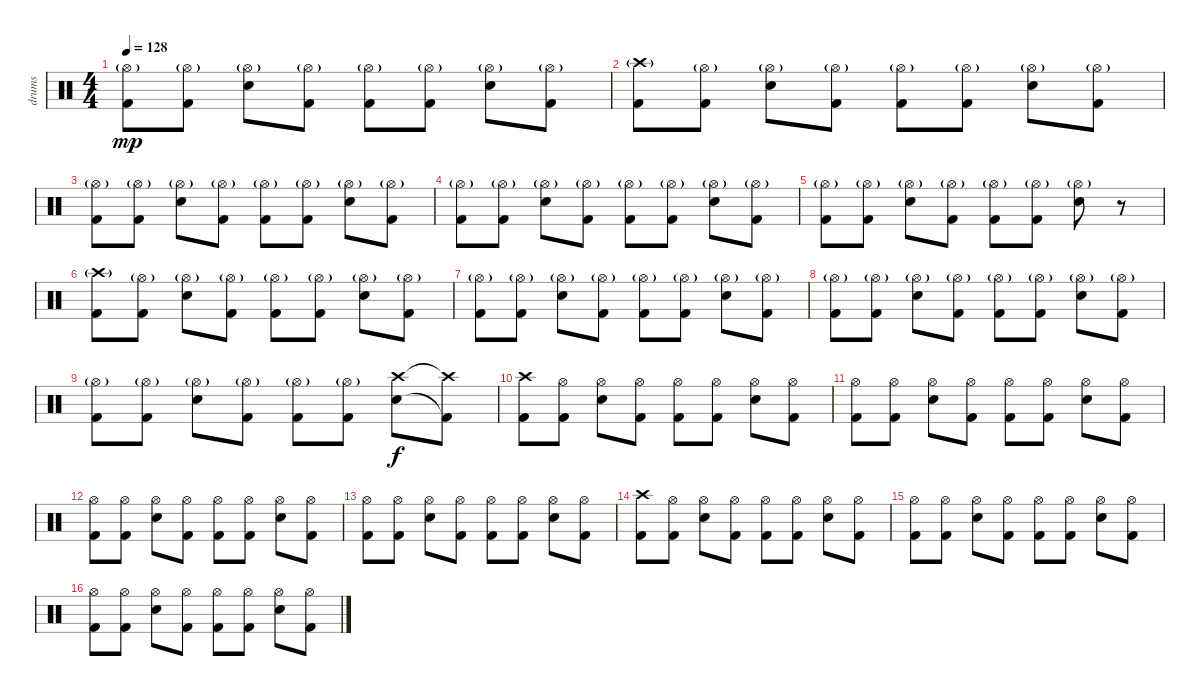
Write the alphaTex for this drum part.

\track ("drums" "drums") {instrument percussion}
\staff {score}
\articulation defaults
\ts (4 4)
\tempo 128
\clef neutral
\ks c
("Hi-Hat (open)"{g} "Kick (hit) 2").8{dy mp} ("Hi-Hat (open)"{g} "Kick (hit) 2").8 ("Hi-Hat (open)"{g} "Electric Snare (hit)").8 ("Hi-Hat (open)"{g} "Kick (hit) 2").8 ("Hi-Hat (open)"{g} "Kick (hit) 2").8 ("Hi-Hat (open)"{g} "Kick (hit) 2").8 ("Hi-Hat (open)"{g} "Electric Snare (hit)").8 ("Hi-Hat (open)"{g} "Kick (hit) 2").8 |
("Crash high (hit)"{g} "Kick (hit) 2").8 ("Hi-Hat (open)"{g} "Kick (hit) 2").8 ("Hi-Hat (open)"{g} "Electric Snare (hit)").8 ("Hi-Hat (open)"{g} "Kick (hit) 2").8 ("Hi-Hat (open)"{g} "Kick (hit) 2").8 ("Hi-Hat (open)"{g} "Kick (hit) 2").8 ("Hi-Hat (open)"{g} "Electric Snare (hit)").8 ("Hi-Hat (open)"{g} "Kick (hit) 2").8 |
("Hi-Hat (open)"{g} "Kick (hit) 2").8 ("Hi-Hat (open)"{g} "Kick (hit) 2").8 ("Hi-Hat (open)"{g} "Electric Snare (hit)").8 ("Hi-Hat (open)"{g} "Kick (hit) 2").8 ("Hi-Hat (open)"{g} "Kick (hit) 2").8 ("Hi-Hat (open)"{g} "Kick (hit) 2").8 ("Hi-Hat (open)"{g} "Electric Snare (hit)").8 ("Hi-Hat (open)"{g} "Kick (hit) 2").8 |
("Hi-Hat (open)"{g} "Kick (hit) 2").8 ("Hi-Hat (open)"{g} "Kick (hit) 2").8 ("Hi-Hat (open)"{g} "Electric Snare (hit)").8 ("Hi-Hat (open)"{g} "Kick (hit) 2").8 ("Hi-Hat (open)"{g} "Kick (hit) 2").8 ("Hi-Hat (open)"{g} "Kick (hit) 2").8 ("Hi-Hat (open)"{g} "Electric Snare (hit)").8 ("Hi-Hat (open)"{g} "Kick (hit) 2").8 |
("Hi-Hat (open)"{g} "Kick (hit) 2").8 ("Hi-Hat (open)"{g} "Kick (hit) 2").8 ("Hi-Hat (open)"{g} "Electric Snare (hit)").8 ("Hi-Hat (open)"{g} "Kick (hit) 2").8 ("Hi-Hat (open)"{g} "Kick (hit) 2").8 ("Hi-Hat (open)"{g} "Kick (hit) 2").8 ("Hi-Hat (open)"{g} "Electric Snare (hit)").8 r.8 |
("Crash high (hit)"{g} "Kick (hit) 2").8 ("Hi-Hat (open)"{g} "Kick (hit) 2").8 ("Hi-Hat (open)"{g} "Electric Snare (hit)").8 ("Hi-Hat (open)"{g} "Kick (hit) 2").8 ("Hi-Hat (open)"{g} "Kick (hit) 2").8 ("Hi-Hat (open)"{g} "Kick (hit) 2").8 ("Hi-Hat (open)"{g} "Electric Snare (hit)").8 ("Hi-Hat (open)"{g} "Kick (hit) 2").8 |
("Hi-Hat (open)"{g} "Kick (hit) 2").8 ("Hi-Hat (open)"{g} "Kick (hit) 2").8 ("Hi-Hat (open)"{g} "Electric Snare (hit)").8 ("Hi-Hat (open)"{g} "Kick (hit) 2").8 ("Hi-Hat (open)"{g} "Kick (hit) 2").8 ("Hi-Hat (open)"{g} "Kick (hit) 2").8 ("Hi-Hat (open)"{g} "Electric Snare (hit)").8 ("Hi-Hat (open)"{g} "Kick (hit) 2").8 |
("Hi-Hat (open)"{g} "Kick (hit) 2").8 ("Hi-Hat (open)"{g} "Kick (hit) 2").8 ("Hi-Hat (open)"{g} "Electric Snare (hit)").8 ("Hi-Hat (open)"{g} "Kick (hit) 2").8 ("Hi-Hat (open)"{g} "Kick (hit) 2").8 ("Hi-Hat (open)"{g} "Kick (hit) 2").8 ("Hi-Hat (open)"{g} "Electric Snare (hit)").8 ("Hi-Hat (open)"{g} "Kick (hit) 2").8 |
("Hi-Hat (open)"{g} "Kick (hit) 2").8 ("Hi-Hat (open)"{g} "Kick (hit) 2").8 ("Hi-Hat (open)"{g} "Electric Snare (hit)").8 ("Hi-Hat (open)"{g} "Kick (hit) 2").8 ("Hi-Hat (open)"{g} "Kick (hit) 2").8 ("Hi-Hat (open)"{g} "Kick (hit) 2").8 ("Crash high (hit)" "Electric Snare (hit)").8{dy f} ("Crash high (hit)"{t} "Kick (hit) 2"{t}).8 |
("Crash high (hit)" "Kick (hit) 2").8 ("Hi-Hat (open)" "Kick (hit) 2").8 ("Hi-Hat (open)" "Electric Snare (hit)").8 ("Hi-Hat (open)" "Kick (hit) 2").8 ("Hi-Hat (open)" "Kick (hit) 2").8 ("Hi-Hat (open)" "Kick (hit) 2").8 ("Hi-Hat (open)" "Electric Snare (hit)").8 ("Hi-Hat (open)" "Kick (hit) 2").8 |
("Hi-Hat (open)" "Kick (hit) 2").8 ("Hi-Hat (open)" "Kick (hit) 2").8 ("Hi-Hat (open)" "Electric Snare (hit)").8 ("Hi-Hat (open)" "Kick (hit) 2").8 ("Hi-Hat (open)" "Kick (hit) 2").8 ("Hi-Hat (open)" "Kick (hit) 2").8 ("Hi-Hat (open)" "Electric Snare (hit)").8 ("Hi-Hat (open)" "Kick (hit) 2").8 |
("Hi-Hat (open)" "Kick (hit) 2").8 ("Hi-Hat (open)" "Kick (hit) 2").8 ("Hi-Hat (open)" "Electric Snare (hit)").8 ("Hi-Hat (open)" "Kick (hit) 2").8 ("Hi-Hat (open)" "Kick (hit) 2").8 ("Hi-Hat (open)" "Kick (hit) 2").8 ("Hi-Hat (open)" "Electric Snare (hit)").8 ("Hi-Hat (open)" "Kick (hit) 2").8 |
("Hi-Hat (open)" "Kick (hit) 2").8 ("Hi-Hat (open)" "Kick (hit) 2").8 ("Hi-Hat (open)" "Electric Snare (hit)").8 ("Hi-Hat (open)" "Kick (hit) 2").8 ("Hi-Hat (open)" "Kick (hit) 2").8 ("Hi-Hat (open)" "Kick (hit) 2").8 ("Hi-Hat (open)" "Electric Snare (hit)").8 ("Hi-Hat (open)" "Kick (hit) 2").8 |
("Crash high (hit)" "Kick (hit) 2").8 ("Hi-Hat (open)" "Kick (hit) 2").8 ("Hi-Hat (open)" "Electric Snare (hit)").8 ("Hi-Hat (open)" "Kick (hit) 2").8 ("Hi-Hat (open)" "Kick (hit) 2").8 ("Hi-Hat (open)" "Kick (hit) 2").8 ("Hi-Hat (open)" "Electric Snare (hit)").8 ("Hi-Hat (open)" "Kick (hit) 2").8 |
("Hi-Hat (open)" "Kick (hit) 2").8 ("Hi-Hat (open)" "Kick (hit) 2").8 ("Hi-Hat (open)" "Electric Snare (hit)").8 ("Hi-Hat (open)" "Kick (hit) 2").8 ("Hi-Hat (open)" "Kick (hit) 2").8 ("Hi-Hat (open)" "Kick (hit) 2").8 ("Hi-Hat (open)" "Electric Snare (hit)").8 ("Hi-Hat (open)" "Kick (hit) 2").8 |
("Hi-Hat (open)" "Kick (hit) 2").8 ("Hi-Hat (open)" "Kick (hit) 2").8 ("Hi-Hat (open)" "Electric Snare (hit)").8 ("Hi-Hat (open)" "Kick (hit) 2").8 ("Hi-Hat (open)" "Kick (hit) 2").8 ("Hi-Hat (open)" "Kick (hit) 2").8 ("Hi-Hat (open)" "Electric Snare (hit)").8 ("Hi-Hat (open)" "Kick (hit) 2").8
